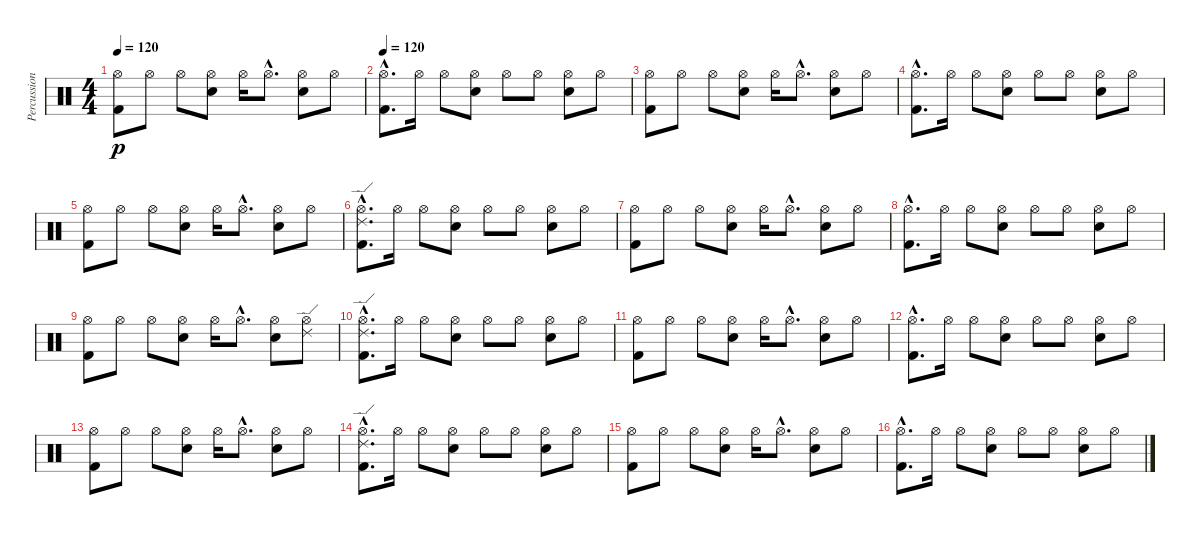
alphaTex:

\track ("Percussion" "Percussion") {instrument percussion}
\staff {score}
\articulation defaults
\ts (4 4)
\tempo 120
\clef neutral
\ks c
("Hi-Hat (open)" "Kick (hit) 2").8{dy p} "Hi-Hat (open)".8 "Hi-Hat (open)".8 ("Hi-Hat (open)" "Electric Snare (hit)").8 "Hi-Hat (open)".16 "Hi-Hat (open)"{hac}.8{d} ("Hi-Hat (open)" "Electric Snare (hit)").8 "Hi-Hat (open)".8 |
\tempo 120
("Hi-Hat (open)"{hac} "Kick (hit) 2"{hac}).8{d} "Hi-Hat (open)".16 "Hi-Hat (open)".8 ("Hi-Hat (open)" "Electric Snare (hit)").8 "Hi-Hat (open)".8 "Hi-Hat (open)".8 ("Hi-Hat (open)" "Electric Snare (hit)").8 "Hi-Hat (open)".8 |
("Hi-Hat (open)" "Kick (hit) 2").8 "Hi-Hat (open)".8 "Hi-Hat (open)".8 ("Hi-Hat (open)" "Electric Snare (hit)").8 "Hi-Hat (open)".16 "Hi-Hat (open)"{hac}.8{d} ("Hi-Hat (open)" "Electric Snare (hit)").8 "Hi-Hat (open)".8 |
("Hi-Hat (open)"{hac} "Kick (hit) 2"{hac}).8{d} "Hi-Hat (open)".16 "Hi-Hat (open)".8 ("Hi-Hat (open)" "Electric Snare (hit)").8 "Hi-Hat (open)".8 "Hi-Hat (open)".8 ("Hi-Hat (open)" "Electric Snare (hit)").8 "Hi-Hat (open)".8 |
("Hi-Hat (open)" "Kick (hit) 2").8 "Hi-Hat (open)".8 "Hi-Hat (open)".8 ("Hi-Hat (open)" "Electric Snare (hit)").8 "Hi-Hat (open)".16 "Hi-Hat (open)"{hac}.8{d} ("Hi-Hat (open)" "Electric Snare (hit)").8 "Hi-Hat (open)".8 |
("Hi-Hat (open)"{hac} "Kick (hit) 2"{hac} "Ride (edge) 2"{hac}).8{d} "Hi-Hat (open)".16 "Hi-Hat (open)".8 ("Hi-Hat (open)" "Electric Snare (hit)").8 "Hi-Hat (open)".8 "Hi-Hat (open)".8 ("Hi-Hat (open)" "Electric Snare (hit)").8 "Hi-Hat (open)".8 |
("Hi-Hat (open)" "Kick (hit) 2").8 "Hi-Hat (open)".8 "Hi-Hat (open)".8 ("Hi-Hat (open)" "Electric Snare (hit)").8 "Hi-Hat (open)".16 "Hi-Hat (open)"{hac}.8{d} ("Hi-Hat (open)" "Electric Snare (hit)").8 "Hi-Hat (open)".8 |
("Hi-Hat (open)"{hac} "Kick (hit) 2"{hac}).8{d} "Hi-Hat (open)".16 "Hi-Hat (open)".8 ("Hi-Hat (open)" "Electric Snare (hit)").8 "Hi-Hat (open)".8 "Hi-Hat (open)".8 ("Hi-Hat (open)" "Electric Snare (hit)").8 "Hi-Hat (open)".8 |
("Hi-Hat (open)" "Kick (hit) 2").8 "Hi-Hat (open)".8 "Hi-Hat (open)".8 ("Hi-Hat (open)" "Electric Snare (hit)").8 "Hi-Hat (open)".16 "Hi-Hat (open)"{hac}.8{d} ("Hi-Hat (open)" "Electric Snare (hit)").8 ("Hi-Hat (open)" "Ride (edge) 2").8 |
("Hi-Hat (open)"{hac} "Kick (hit) 2"{hac} "Ride (edge) 2"{hac}).8{d} "Hi-Hat (open)".16 "Hi-Hat (open)".8 ("Hi-Hat (open)" "Electric Snare (hit)").8 "Hi-Hat (open)".8 "Hi-Hat (open)".8 ("Hi-Hat (open)" "Electric Snare (hit)").8 "Hi-Hat (open)".8 |
("Hi-Hat (open)" "Kick (hit) 2").8 "Hi-Hat (open)".8 "Hi-Hat (open)".8 ("Hi-Hat (open)" "Electric Snare (hit)").8 "Hi-Hat (open)".16 "Hi-Hat (open)"{hac}.8{d} ("Hi-Hat (open)" "Electric Snare (hit)").8 "Hi-Hat (open)".8 |
("Hi-Hat (open)"{hac} "Kick (hit) 2"{hac}).8{d} "Hi-Hat (open)".16 "Hi-Hat (open)".8 ("Hi-Hat (open)" "Electric Snare (hit)").8 "Hi-Hat (open)".8 "Hi-Hat (open)".8 ("Hi-Hat (open)" "Electric Snare (hit)").8 "Hi-Hat (open)".8 |
("Hi-Hat (open)" "Kick (hit) 2").8 "Hi-Hat (open)".8 "Hi-Hat (open)".8 ("Hi-Hat (open)" "Electric Snare (hit)").8 "Hi-Hat (open)".16 "Hi-Hat (open)"{hac}.8{d} ("Hi-Hat (open)" "Electric Snare (hit)").8 "Hi-Hat (open)".8 |
("Hi-Hat (open)"{hac} "Kick (hit) 2"{hac} "Ride (edge) 2"{hac}).8{d} "Hi-Hat (open)".16 "Hi-Hat (open)".8 ("Hi-Hat (open)" "Electric Snare (hit)").8 "Hi-Hat (open)".8 "Hi-Hat (open)".8 ("Hi-Hat (open)" "Electric Snare (hit)").8 "Hi-Hat (open)".8 |
("Hi-Hat (open)" "Kick (hit) 2").8 "Hi-Hat (open)".8 "Hi-Hat (open)".8 ("Hi-Hat (open)" "Electric Snare (hit)").8 "Hi-Hat (open)".16 "Hi-Hat (open)"{hac}.8{d} ("Hi-Hat (open)" "Electric Snare (hit)").8 "Hi-Hat (open)".8 |
("Hi-Hat (open)"{hac} "Kick (hit) 2"{hac}).8{d} "Hi-Hat (open)".16 "Hi-Hat (open)".8 ("Hi-Hat (open)" "Electric Snare (hit)").8 "Hi-Hat (open)".8 "Hi-Hat (open)".8 ("Hi-Hat (open)" "Electric Snare (hit)").8 "Hi-Hat (open)".8
